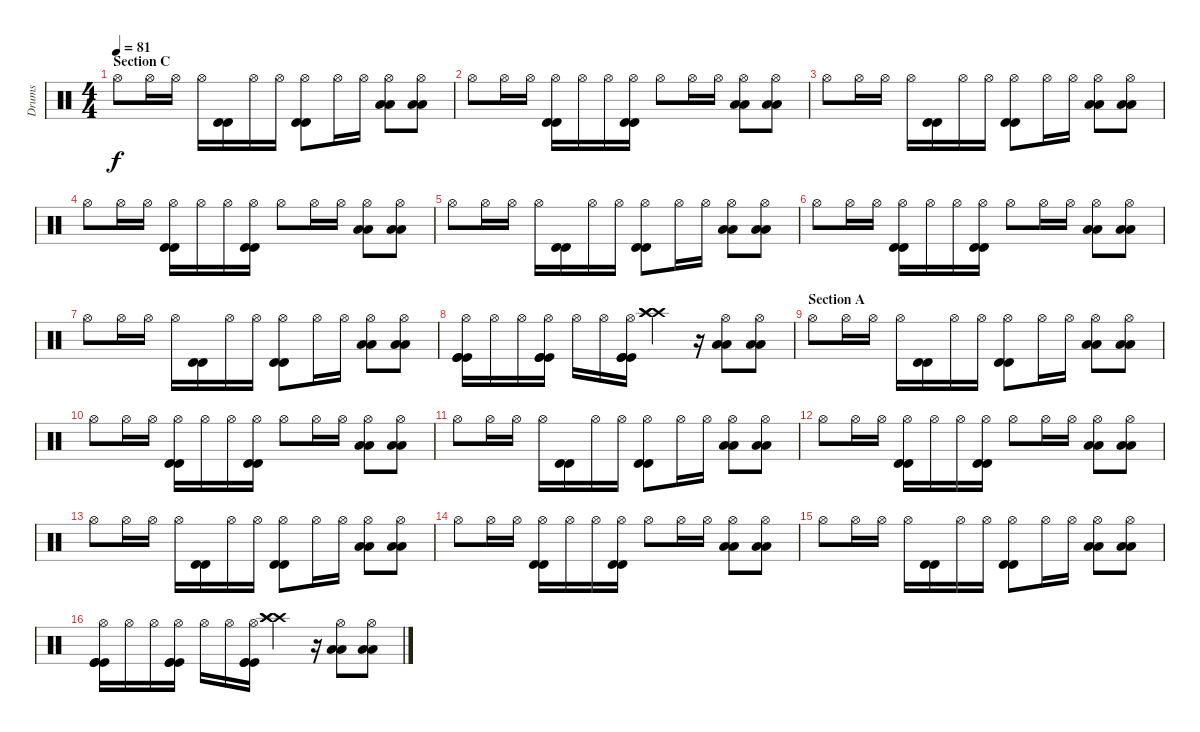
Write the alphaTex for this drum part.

\track ("Drums" "Drums") {instrument percussion}
\staff {score}
\articulation defaults
\ts (4 4)
\section ("" "Section C")
\tempo 81
\clef neutral
\ks c "Hi-Hat (open)".8{dy f} "Hi-Hat (open)".16 "Hi-Hat (open)".16 "Hi-Hat (open)".16
("Timbale high (hit)" "Timbale high (hit)").16 "Hi-Hat (open)".16 "Hi-Hat (open)".16 ("Hi-Hat (open)" "Timbale high (hit)" "Timbale high (hit)").8 "Hi-Hat (open)".16 "Hi-Hat (open)".16 ("Hi-Hat (open)" "Low Tom (hit)" "Low Tom (hit)").8 ("Hi-Hat (open)" "Low Tom (hit)" "Low Tom (hit)").8 |
"Hi-Hat (open)".8 "Hi-Hat (open)".16 "Hi-Hat (open)".16 ("Hi-Hat (open)" "Timbale high (hit)" "Timbale high (hit)").16 "Hi-Hat (open)".16 "Hi-Hat (open)".16 ("Hi-Hat (open)" "Timbale high (hit)" "Timbale high (hit)").16 "Hi-Hat (open)".8 "Hi-Hat (open)".16 "Hi-Hat (open)".16 ("Hi-Hat (open)" "Low Tom (hit)" "Low Tom (hit)").8 ("Hi-Hat (open)" "Low Tom (hit)" "Low Tom (hit)").8 |
"Hi-Hat (open)".8 "Hi-Hat (open)".16 "Hi-Hat (open)".16 "Hi-Hat (open)".16 ("Timbale high (hit)" "Timbale high (hit)").16 "Hi-Hat (open)".16 "Hi-Hat (open)".16 ("Hi-Hat (open)" "Timbale high (hit)" "Timbale high (hit)").8 "Hi-Hat (open)".16 "Hi-Hat (open)".16 ("Hi-Hat (open)" "Low Tom (hit)" "Low Tom (hit)").8 ("Hi-Hat (open)" "Low Tom (hit)" "Low Tom (hit)").8 |
"Hi-Hat (open)".8 "Hi-Hat (open)".16 "Hi-Hat (open)".16 ("Hi-Hat (open)" "Timbale high (hit)" "Timbale high (hit)").16 "Hi-Hat (open)".16 "Hi-Hat (open)".16 ("Hi-Hat (open)" "Timbale high (hit)" "Timbale high (hit)").16 "Hi-Hat (open)".8 "Hi-Hat (open)".16 "Hi-Hat (open)".16 ("Hi-Hat (open)" "Low Tom (hit)" "Low Tom (hit)").8 ("Hi-Hat (open)" "Low Tom (hit)" "Low Tom (hit)").8 |
"Hi-Hat (open)".8 "Hi-Hat (open)".16 "Hi-Hat (open)".16 "Hi-Hat (open)".16 ("Timbale high (hit)" "Timbale high (hit)").16 "Hi-Hat (open)".16 "Hi-Hat (open)".16 ("Hi-Hat (open)" "Timbale high (hit)" "Timbale high (hit)").8 "Hi-Hat (open)".16 "Hi-Hat (open)".16 ("Hi-Hat (open)" "Low Tom (hit)" "Low Tom (hit)").8 ("Hi-Hat (open)" "Low Tom (hit)" "Low Tom (hit)").8 |
"Hi-Hat (open)".8 "Hi-Hat (open)".16 "Hi-Hat (open)".16 ("Hi-Hat (open)" "Timbale high (hit)" "Timbale high (hit)").16 "Hi-Hat (open)".16 "Hi-Hat (open)".16 ("Hi-Hat (open)" "Timbale high (hit)" "Timbale high (hit)").16 "Hi-Hat (open)".8 "Hi-Hat (open)".16 "Hi-Hat (open)".16 ("Hi-Hat (open)" "Low Tom (hit)" "Low Tom (hit)").8 ("Hi-Hat (open)" "Low Tom (hit)" "Low Tom (hit)").8 |
"Hi-Hat (open)".8 "Hi-Hat (open)".16 "Hi-Hat (open)".16 "Hi-Hat (open)".16 ("Timbale high (hit)" "Timbale high (hit)").16 "Hi-Hat (open)".16 "Hi-Hat (open)".16 ("Hi-Hat (open)" "Timbale high (hit)" "Timbale high (hit)").8 "Hi-Hat (open)".16 "Hi-Hat (open)".16 ("Hi-Hat (open)" "Low Tom (hit)" "Low Tom (hit)").8 ("Hi-Hat (open)" "Low Tom (hit)" "Low Tom (hit)").8 |
("Hi-Hat (open)" "Kick (hit)" "Kick (hit)" "Kick (hit)").16 "Hi-Hat (open)".16 "Hi-Hat (open)".16 ("Hi-Hat (open)" "Kick (hit)" "Kick (hit)" "Kick (hit)").16 "Hi-Hat (open)".16 "Hi-Hat (open)".16 ("Hi-Hat (open)" "Kick (hit)" "Kick (hit)" "Kick (hit)").16 ("Crash high (hit)" "Crash high (hit)" "Crash high (hit)").4 r.16 ("Hi-Hat (open)" "Low Tom (hit)" "Low Tom (hit)").8 ("Hi-Hat (open)" "Low Tom (hit)" "Low Tom (hit)").8 |
\section ("" "Section A")
"Hi-Hat (open)".8 "Hi-Hat (open)".16 "Hi-Hat (open)".16 "Hi-Hat (open)".16 ("Timbale high (hit)" "Timbale high (hit)").16 "Hi-Hat (open)".16 "Hi-Hat (open)".16 ("Hi-Hat (open)" "Timbale high (hit)" "Timbale high (hit)").8 "Hi-Hat (open)".16 "Hi-Hat (open)".16 ("Hi-Hat (open)" "Low Tom (hit)" "Low Tom (hit)").8 ("Hi-Hat (open)" "Low Tom (hit)" "Low Tom (hit)").8 |
"Hi-Hat (open)".8 "Hi-Hat (open)".16 "Hi-Hat (open)".16 ("Hi-Hat (open)" "Timbale high (hit)" "Timbale high (hit)").16 "Hi-Hat (open)".16 "Hi-Hat (open)".16 ("Hi-Hat (open)" "Timbale high (hit)" "Timbale high (hit)").16 "Hi-Hat (open)".8 "Hi-Hat (open)".16 "Hi-Hat (open)".16 ("Hi-Hat (open)" "Low Tom (hit)" "Low Tom (hit)").8 ("Hi-Hat (open)" "Low Tom (hit)" "Low Tom (hit)").8 |
"Hi-Hat (open)".8 "Hi-Hat (open)".16 "Hi-Hat (open)".16 "Hi-Hat (open)".16 ("Timbale high (hit)" "Timbale high (hit)").16 "Hi-Hat (open)".16 "Hi-Hat (open)".16 ("Hi-Hat (open)" "Timbale high (hit)" "Timbale high (hit)").8 "Hi-Hat (open)".16 "Hi-Hat (open)".16 ("Hi-Hat (open)" "Low Tom (hit)" "Low Tom (hit)").8 ("Hi-Hat (open)" "Low Tom (hit)" "Low Tom (hit)").8 |
"Hi-Hat (open)".8 "Hi-Hat (open)".16 "Hi-Hat (open)".16 ("Hi-Hat (open)" "Timbale high (hit)" "Timbale high (hit)").16 "Hi-Hat (open)".16 "Hi-Hat (open)".16 ("Hi-Hat (open)" "Timbale high (hit)" "Timbale high (hit)").16 "Hi-Hat (open)".8 "Hi-Hat (open)".16 "Hi-Hat (open)".16 ("Hi-Hat (open)" "Low Tom (hit)" "Low Tom (hit)").8 ("Hi-Hat (open)" "Low Tom (hit)" "Low Tom (hit)").8 |
"Hi-Hat (open)".8 "Hi-Hat (open)".16 "Hi-Hat (open)".16 "Hi-Hat (open)".16 ("Timbale high (hit)" "Timbale high (hit)").16 "Hi-Hat (open)".16 "Hi-Hat (open)".16 ("Hi-Hat (open)" "Timbale high (hit)" "Timbale high (hit)").8 "Hi-Hat (open)".16 "Hi-Hat (open)".16 ("Hi-Hat (open)" "Low Tom (hit)" "Low Tom (hit)").8 ("Hi-Hat (open)" "Low Tom (hit)" "Low Tom (hit)").8 |
"Hi-Hat (open)".8 "Hi-Hat (open)".16 "Hi-Hat (open)".16 ("Hi-Hat (open)" "Timbale high (hit)" "Timbale high (hit)").16 "Hi-Hat (open)".16 "Hi-Hat (open)".16 ("Hi-Hat (open)" "Timbale high (hit)" "Timbale high (hit)").16 "Hi-Hat (open)".8 "Hi-Hat (open)".16 "Hi-Hat (open)".16 ("Hi-Hat (open)" "Low Tom (hit)" "Low Tom (hit)").8 ("Hi-Hat (open)" "Low Tom (hit)" "Low Tom (hit)").8 |
"Hi-Hat (open)".8 "Hi-Hat (open)".16 "Hi-Hat (open)".16 "Hi-Hat (open)".16 ("Timbale high (hit)" "Timbale high (hit)").16 "Hi-Hat (open)".16 "Hi-Hat (open)".16 ("Hi-Hat (open)" "Timbale high (hit)" "Timbale high (hit)").8 "Hi-Hat (open)".16 "Hi-Hat (open)".16 ("Hi-Hat (open)" "Low Tom (hit)" "Low Tom (hit)").8 ("Hi-Hat (open)" "Low Tom (hit)" "Low Tom (hit)").8 |
("Hi-Hat (open)" "Kick (hit)" "Kick (hit)" "Kick (hit)").16 "Hi-Hat (open)".16 "Hi-Hat (open)".16 ("Hi-Hat (open)" "Kick (hit)" "Kick (hit)" "Kick (hit)").16 "Hi-Hat (open)".16 "Hi-Hat (open)".16 ("Hi-Hat (open)" "Kick (hit)" "Kick (hit)" "Kick (hit)").16 ("Crash high (hit)" "Crash high (hit)" "Crash high (hit)").4 r.16 ("Hi-Hat (open)" "Low Tom (hit)" "Low Tom (hit)").8 ("Hi-Hat (open)" "Low Tom (hit)" "Low Tom (hit)").8
